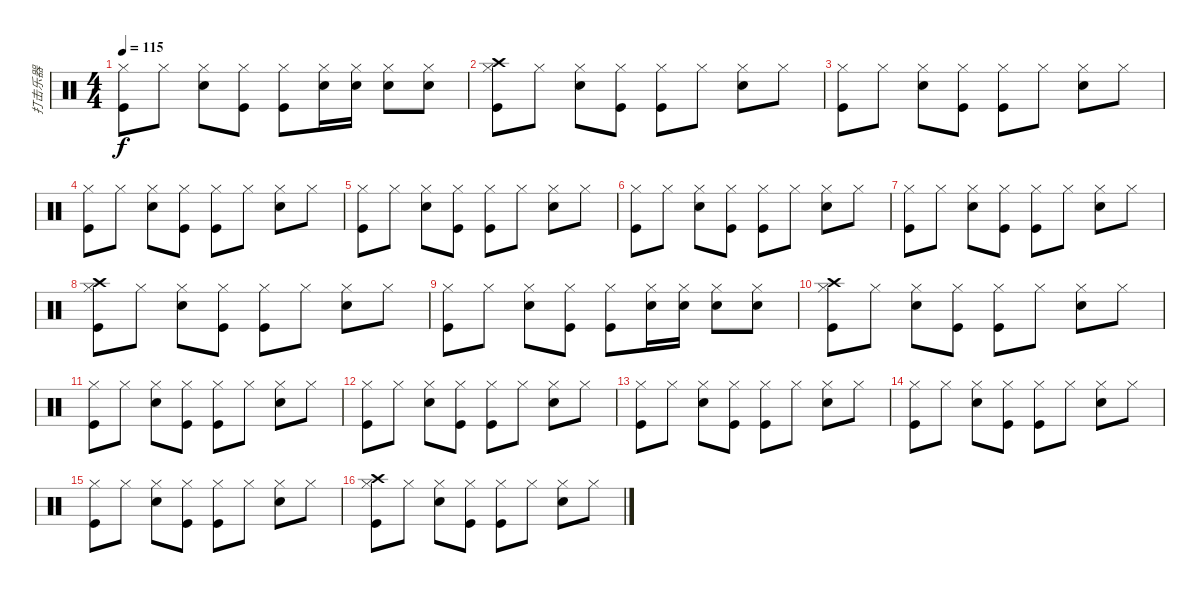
\track ("打击乐器" "打击乐器") {instrument percussion}
\staff {score}
\articulation defaults
\ts (4 4)
\tempo 115
\clef neutral
\ks c
("Hi-Hat (closed)" "Kick (hit)").8{dy f} "Hi-Hat (closed)".8 ("Hi-Hat (closed)" "Snare (hit) 2").8 ("Hi-Hat (closed)" "Kick (hit)").8 ("Hi-Hat (closed)" "Kick (hit)").8 ("Hi-Hat (closed)" "Snare (hit) 2").16 ("Hi-Hat (closed)" "Snare (hit) 2").16 ("Hi-Hat (closed)" "Snare (hit) 2").8 ("Hi-Hat (closed)" "Snare (hit) 2").8 |
("Hi-Hat (closed)" "Kick (hit)" "Crash high (hit)").8 "Hi-Hat (closed)".8 ("Hi-Hat (closed)" "Snare (hit) 2").8 ("Hi-Hat (closed)" "Kick (hit)").8 ("Hi-Hat (closed)" "Kick (hit)").8 "Hi-Hat (closed)".8 ("Hi-Hat (closed)" "Snare (hit) 2").8 "Hi-Hat (closed)".8 |
("Hi-Hat (closed)" "Kick (hit)").8 "Hi-Hat (closed)".8 ("Hi-Hat (closed)" "Snare (hit) 2").8 ("Hi-Hat (closed)" "Kick (hit)").8 ("Hi-Hat (closed)" "Kick (hit)").8 "Hi-Hat (closed)".8 ("Hi-Hat (closed)" "Snare (hit) 2").8 "Hi-Hat (closed)".8 |
("Hi-Hat (closed)" "Kick (hit)").8 "Hi-Hat (closed)".8 ("Hi-Hat (closed)" "Snare (hit) 2").8 ("Hi-Hat (closed)" "Kick (hit)").8 ("Hi-Hat (closed)" "Kick (hit)").8 "Hi-Hat (closed)".8 ("Hi-Hat (closed)" "Snare (hit) 2").8 "Hi-Hat (closed)".8 |
("Hi-Hat (closed)" "Kick (hit)").8 "Hi-Hat (closed)".8 ("Hi-Hat (closed)" "Snare (hit) 2").8 ("Hi-Hat (closed)" "Kick (hit)").8 ("Hi-Hat (closed)" "Kick (hit)").8 "Hi-Hat (closed)".8 ("Hi-Hat (closed)" "Snare (hit) 2").8 "Hi-Hat (closed)".8 |
("Hi-Hat (closed)" "Kick (hit)").8 "Hi-Hat (closed)".8 ("Hi-Hat (closed)" "Snare (hit) 2").8 ("Hi-Hat (closed)" "Kick (hit)").8 ("Hi-Hat (closed)" "Kick (hit)").8 "Hi-Hat (closed)".8 ("Hi-Hat (closed)" "Snare (hit) 2").8 "Hi-Hat (closed)".8 |
("Hi-Hat (closed)" "Kick (hit)").8 "Hi-Hat (closed)".8 ("Hi-Hat (closed)" "Snare (hit) 2").8 ("Hi-Hat (closed)" "Kick (hit)").8 ("Hi-Hat (closed)" "Kick (hit)").8 "Hi-Hat (closed)".8 ("Hi-Hat (closed)" "Snare (hit) 2").8 "Hi-Hat (closed)".8 |
("Hi-Hat (closed)" "Kick (hit)" "Crash high (hit)").8 "Hi-Hat (closed)".8 ("Hi-Hat (closed)" "Snare (hit) 2").8 ("Hi-Hat (closed)" "Kick (hit)").8 ("Hi-Hat (closed)" "Kick (hit)").8 "Hi-Hat (closed)".8 ("Hi-Hat (closed)" "Snare (hit) 2").8 "Hi-Hat (closed)".8 |
("Hi-Hat (closed)" "Kick (hit)").8 "Hi-Hat (closed)".8 ("Hi-Hat (closed)" "Snare (hit) 2").8 ("Hi-Hat (closed)" "Kick (hit)").8 ("Hi-Hat (closed)" "Kick (hit)").8 ("Hi-Hat (closed)" "Snare (hit) 2").16 ("Hi-Hat (closed)" "Snare (hit) 2").16 ("Hi-Hat (closed)" "Snare (hit) 2").8 ("Hi-Hat (closed)" "Snare (hit) 2").8 |
("Hi-Hat (closed)" "Kick (hit)" "Crash high (hit)").8 "Hi-Hat (closed)".8 ("Hi-Hat (closed)" "Snare (hit) 2").8 ("Hi-Hat (closed)" "Kick (hit)").8 ("Hi-Hat (closed)" "Kick (hit)").8 "Hi-Hat (closed)".8 ("Hi-Hat (closed)" "Snare (hit) 2").8 "Hi-Hat (closed)".8 |
("Hi-Hat (closed)" "Kick (hit)").8 "Hi-Hat (closed)".8 ("Hi-Hat (closed)" "Snare (hit) 2").8 ("Hi-Hat (closed)" "Kick (hit)").8 ("Hi-Hat (closed)" "Kick (hit)").8 "Hi-Hat (closed)".8 ("Hi-Hat (closed)" "Snare (hit) 2").8 "Hi-Hat (closed)".8 |
("Hi-Hat (closed)" "Kick (hit)").8 "Hi-Hat (closed)".8 ("Hi-Hat (closed)" "Snare (hit) 2").8 ("Hi-Hat (closed)" "Kick (hit)").8 ("Hi-Hat (closed)" "Kick (hit)").8 "Hi-Hat (closed)".8 ("Hi-Hat (closed)" "Snare (hit) 2").8 "Hi-Hat (closed)".8 |
("Hi-Hat (closed)" "Kick (hit)").8 "Hi-Hat (closed)".8 ("Hi-Hat (closed)" "Snare (hit) 2").8 ("Hi-Hat (closed)" "Kick (hit)").8 ("Hi-Hat (closed)" "Kick (hit)").8 "Hi-Hat (closed)".8 ("Hi-Hat (closed)" "Snare (hit) 2").8 "Hi-Hat (closed)".8 |
("Hi-Hat (closed)" "Kick (hit)").8 "Hi-Hat (closed)".8 ("Hi-Hat (closed)" "Snare (hit) 2").8 ("Hi-Hat (closed)" "Kick (hit)").8 ("Hi-Hat (closed)" "Kick (hit)").8 "Hi-Hat (closed)".8 ("Hi-Hat (closed)" "Snare (hit) 2").8 "Hi-Hat (closed)".8 |
("Hi-Hat (closed)" "Kick (hit)").8 "Hi-Hat (closed)".8 ("Hi-Hat (closed)" "Snare (hit) 2").8 ("Hi-Hat (closed)" "Kick (hit)").8 ("Hi-Hat (closed)" "Kick (hit)").8 "Hi-Hat (closed)".8 ("Hi-Hat (closed)" "Snare (hit) 2").8 "Hi-Hat (closed)".8 |
("Hi-Hat (closed)" "Kick (hit)" "Crash high (hit)").8 "Hi-Hat (closed)".8 ("Hi-Hat (closed)" "Snare (hit) 2").8 ("Hi-Hat (closed)" "Kick (hit)").8 ("Hi-Hat (closed)" "Kick (hit)").8 "Hi-Hat (closed)".8 ("Hi-Hat (closed)" "Snare (hit) 2").8 "Hi-Hat (closed)".8
